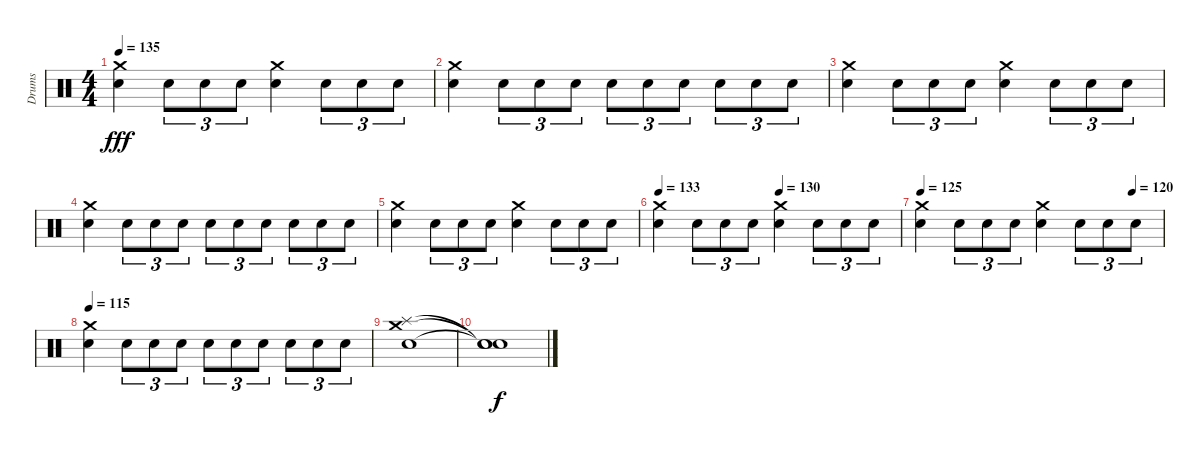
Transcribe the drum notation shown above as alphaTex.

\track ("Drums" "Drums") {instrument percussion}
\staff {score}
\articulation defaults
\ts (4 4)
\tempo 135
\clef neutral
\ks c
("Electric Snare (hit)" "Crash medium (hit)").4{dy fff} "Electric Snare (hit)".8{tu (3 2)} "Electric Snare (hit)".8{tu (3 2)} "Electric Snare (hit)".8{tu (3 2)} ("Electric Snare (hit)" "Crash medium (hit)").4 "Electric Snare (hit)".8{tu (3 2)} "Electric Snare (hit)".8{tu (3 2)} "Electric Snare (hit)".8{tu (3 2)} |
("Electric Snare (hit)" "Crash medium (hit)").4 "Electric Snare (hit)".8{tu (3 2)} "Electric Snare (hit)".8{tu (3 2)} "Electric Snare (hit)".8{tu (3 2)} "Electric Snare (hit)".8{tu (3 2)} "Electric Snare (hit)".8{tu (3 2)} "Electric Snare (hit)".8{tu (3 2)} "Electric Snare (hit)".8{tu (3 2)} "Electric Snare (hit)".8{tu (3 2)} "Electric Snare (hit)".8{tu (3 2)} |
("Electric Snare (hit)" "Crash medium (hit)").4 "Electric Snare (hit)".8{tu (3 2)} "Electric Snare (hit)".8{tu (3 2)} "Electric Snare (hit)".8{tu (3 2)} ("Electric Snare (hit)" "Crash medium (hit)").4 "Electric Snare (hit)".8{tu (3 2)} "Electric Snare (hit)".8{tu (3 2)} "Electric Snare (hit)".8{tu (3 2)} |
("Electric Snare (hit)" "Crash medium (hit)").4 "Electric Snare (hit)".8{tu (3 2)} "Electric Snare (hit)".8{tu (3 2)} "Electric Snare (hit)".8{tu (3 2)} "Electric Snare (hit)".8{tu (3 2)} "Electric Snare (hit)".8{tu (3 2)} "Electric Snare (hit)".8{tu (3 2)} "Electric Snare (hit)".8{tu (3 2)} "Electric Snare (hit)".8{tu (3 2)} "Electric Snare (hit)".8{tu (3 2)} |
("Electric Snare (hit)" "Crash medium (hit)").4 "Electric Snare (hit)".8{tu (3 2)} "Electric Snare (hit)".8{tu (3 2)} "Electric Snare (hit)".8{tu (3 2)} ("Electric Snare (hit)" "Crash medium (hit)").4 "Electric Snare (hit)".8{tu (3 2)} "Electric Snare (hit)".8{tu (3 2)} "Electric Snare (hit)".8{tu (3 2)} |
\tempo 133
\tempo (130 0.5)
("Electric Snare (hit)" "Crash medium (hit)").4 "Electric Snare (hit)".8{tu (3 2)} "Electric Snare (hit)".8{tu (3 2)} "Electric Snare (hit)".8{tu (3 2)} ("Electric Snare (hit)" "Crash medium (hit)").4 "Electric Snare (hit)".8{tu (3 2)} "Electric Snare (hit)".8{tu (3 2)} "Electric Snare (hit)".8{tu (3 2)} |
\tempo 125
\tempo (120 0.875)
("Electric Snare (hit)" "Crash medium (hit)").4 "Electric Snare (hit)".8{tu (3 2)} "Electric Snare (hit)".8{tu (3 2)} "Electric Snare (hit)".8{tu (3 2)} ("Electric Snare (hit)" "Crash medium (hit)").4 "Electric Snare (hit)".8{tu (3 2)} "Electric Snare (hit)".8{tu (3 2)} "Electric Snare (hit)".8{tu (3 2)} |
\tempo 115
("Electric Snare (hit)" "Crash medium (hit)").4 "Electric Snare (hit)".8{tu (3 2)} "Electric Snare (hit)".8{tu (3 2)} "Electric Snare (hit)".8{tu (3 2)} "Electric Snare (hit)".8{tu (3 2)} "Electric Snare (hit)".8{tu (3 2)} "Electric Snare (hit)".8{tu (3 2)} "Electric Snare (hit)".8{tu (3 2)} "Electric Snare (hit)".8{tu (3 2)} "Electric Snare (hit)".8{tu (3 2)} |
("Electric Snare (hit)" "Splash (hit)" "Crash medium (hit)").1 |
("Snare (hit)"{t} "Snare (hit)"{t} "Snare (hit)"{t}).1{dy f}
